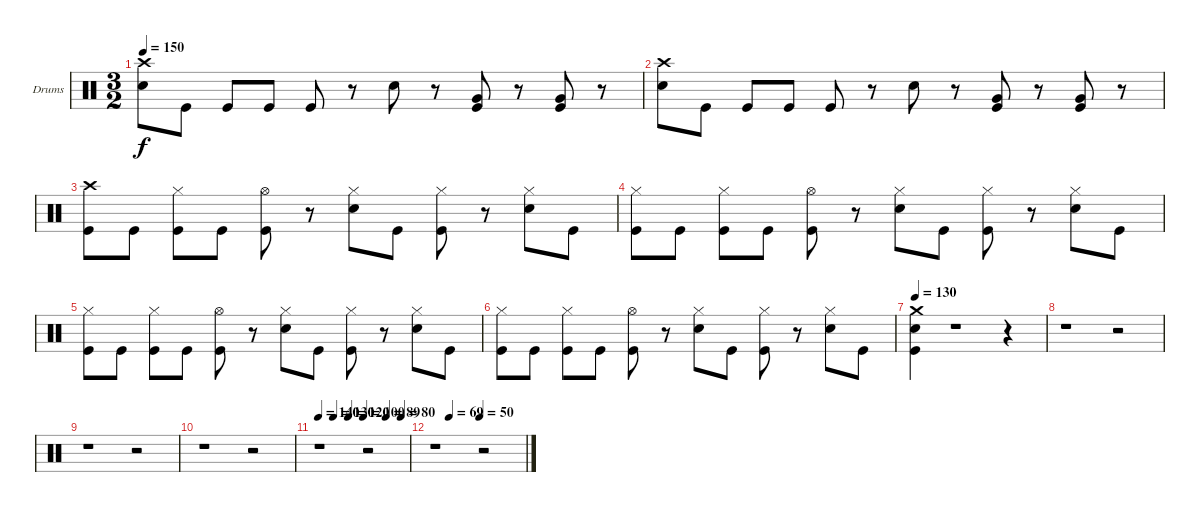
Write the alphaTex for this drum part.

\bracketExtendMode groupsimilarinstruments
\firstSystemTrackNameOrientation horizontal
\otherSystemsTrackNameOrientation horizontal
\track ("Барабаны" "Drums") {instrument percussion}
\staff {score}
\articulation defaults
\ts (3 2)
\tempo 150
\clef neutral
\ks c
("Snare (hit) 2" "Crash high (hit)").8{dy f} "Kick (hit)".8 "Kick (hit)".8 "Kick (hit)".8 "Kick (hit)".8 r.8 "Snare (hit) 2".8 r.8 ("Very Low Tom (hit)" "Kick (hit)").8 r.8 ("Kick (hit)" "Very Low Tom (hit)").8 r.8 |
("Snare (hit) 2" "Crash high (hit)").8 "Kick (hit)".8 "Kick (hit)".8 "Kick (hit)".8 "Kick (hit)".8 r.8 "Snare (hit) 2".8 r.8 ("Kick (hit)" "Very Low Tom (hit)").8 r.8 ("Very Low Tom (hit)" "Kick (hit)").8 r.8 |
("Crash high (hit)" "Kick (hit)").8 "Kick (hit)".8 ("Hi-Hat (closed)" "Kick (hit)").8 "Kick (hit)".8 ("Hi-Hat (open)" "Kick (hit)").8 r.8 ("Snare (hit) 2" "Hi-Hat (closed)").8 "Kick (hit)".8 ("Kick (hit)" "Hi-Hat (closed)").8 r.8 ("Snare (hit) 2" "Hi-Hat (closed)").8 "Kick (hit)".8 |
("Kick (hit)" "Hi-Hat (closed)").8 "Kick (hit)".8 ("Hi-Hat (closed)" "Kick (hit)").8 "Kick (hit)".8 ("Kick (hit)" "Hi-Hat (open)").8 r.8 ("Hi-Hat (closed)" "Snare (hit) 2").8 "Kick (hit)".8 ("Hi-Hat (closed)" "Kick (hit)").8 r.8 ("Hi-Hat (closed)" "Snare (hit) 2").8 "Kick (hit)".8 |
("Hi-Hat (closed)" "Kick (hit)").8 "Kick (hit)".8 ("Hi-Hat (closed)" "Kick (hit)").8 "Kick (hit)".8 ("Hi-Hat (open)" "Kick (hit)").8 r.8 ("Snare (hit) 2" "Hi-Hat (closed)").8 "Kick (hit)".8 ("Hi-Hat (closed)" "Kick (hit)").8 r.8 ("Snare (hit) 2" "Hi-Hat (closed)").8 "Kick (hit)".8 |
("Kick (hit)" "Hi-Hat (closed)").8 "Kick (hit)".8 ("Kick (hit)" "Hi-Hat (closed)").8 "Kick (hit)".8 ("Kick (hit)" "Hi-Hat (open)").8 r.8 ("Snare (hit) 2" "Hi-Hat (closed)").8 "Kick (hit)".8 ("Kick (hit)" "Hi-Hat (closed)").8 r.8 ("Snare (hit) 2" "Hi-Hat (closed)").8 "Kick (hit)".8 |
\tempo 130
("Crash medium (hit)" "Snare (hit) 2" "Kick (hit)").4 r.1 r.4 |
r.1 r.2 |
r.1 r.2 |
r.1 r.2 |
\tempo 140
\tempo (130 0.166667)
\tempo (120 0.333333)
\tempo (100 0.5)
\tempo (89 0.75)
\tempo (80 0.916667)
r.1 r.2 |
\tempo (69 0.166667)
\tempo (50 0.5)
r.1 r.2
